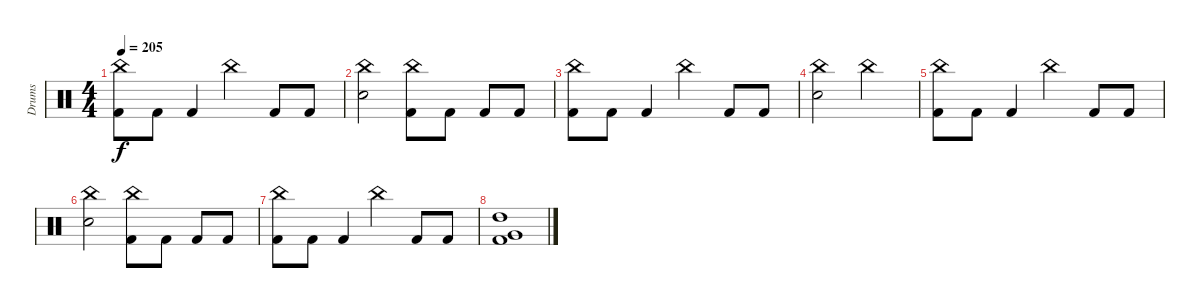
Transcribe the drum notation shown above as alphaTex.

\track ("Drums" "Drums") {instrument percussion}
\staff {score}
\articulation defaults
\ts (4 4)
\tempo 205
\clef neutral
\ks c
("China (hit)" "Kick (hit) 2").8{dy f} "Kick (hit) 2".8 "Kick (hit) 2".4 "China (hit)".4 "Kick (hit) 2".8 "Kick (hit) 2".8 |
("China (hit)" "Electric Snare (hit)").2 ("China (hit)" "Kick (hit) 2").8 "Kick (hit) 2".8 "Kick (hit) 2".8 "Kick (hit) 2".8 |
("China (hit)" "Kick (hit) 2").8 "Kick (hit) 2".8 "Kick (hit) 2".4 "China (hit)".4 "Kick (hit) 2".8 "Kick (hit) 2".8 |
("China (hit)" "Electric Snare (hit)").2 "China (hit)".2 |
("China (hit)" "Kick (hit) 2").8 "Kick (hit) 2".8 "Kick (hit) 2".4 "China (hit)".4 "Kick (hit) 2".8 "Kick (hit) 2".8 |
("China (hit)" "Electric Snare (hit)").2 ("China (hit)" "Kick (hit) 2").8 "Kick (hit) 2".8 "Kick (hit) 2".8 "Kick (hit) 2".8 |
("China (hit)" "Kick (hit) 2").8 "Kick (hit) 2".8 "Kick (hit) 2".4 "China (hit)".4 "Kick (hit) 2".8 "Kick (hit) 2".8 |
("Very Low Tom (hit)" "High Tom (hit)" "Kick (hit) 2").1
